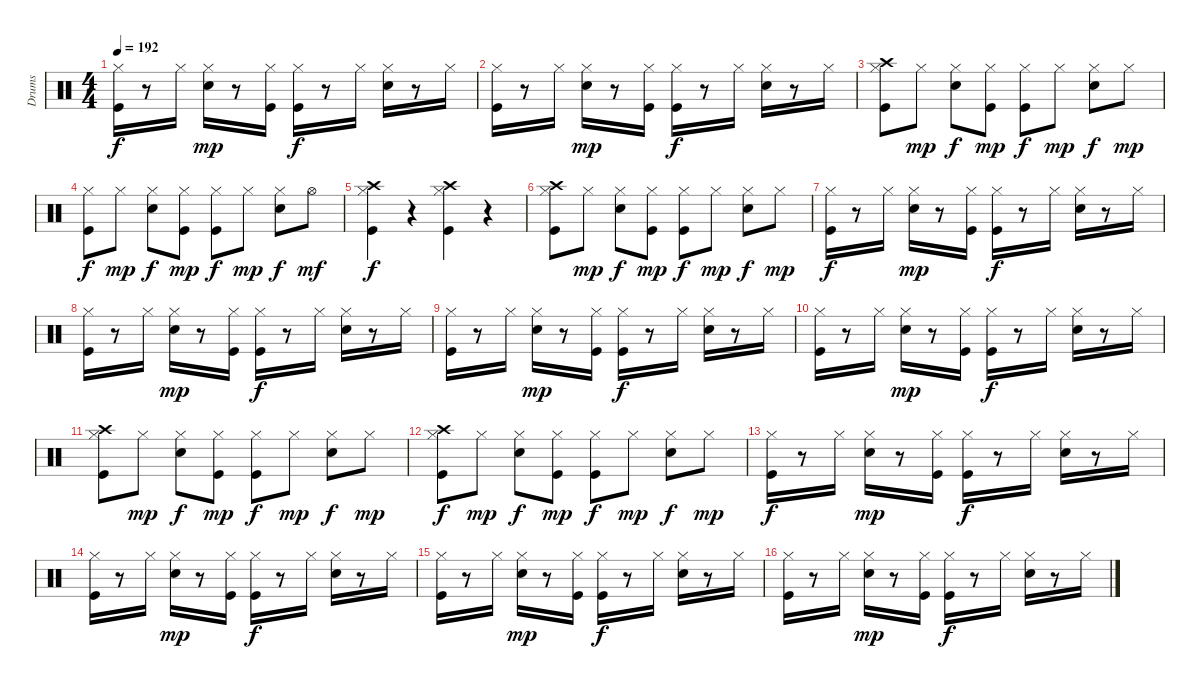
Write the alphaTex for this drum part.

\track ("Drums" "Drums") {instrument percussion}
\staff {score}
\articulation defaults
\ts (4 4)
\tempo 192
\clef neutral
\ks c
("Kick (hit)" "Hi-Hat (closed)").16{dy f} r.8 "Hi-Hat (closed)".16 ("Snare (hit) 2" "Hi-Hat (closed)").16{dy mp} r.8 ("Kick (hit)" "Hi-Hat (closed)").16 ("Kick (hit)" "Hi-Hat (closed)").16{dy f} r.8 "Hi-Hat (closed)".16 ("Snare (hit) 2" "Hi-Hat (closed)").16 r.8 "Hi-Hat (closed)".16 |
("Kick (hit)" "Hi-Hat (closed)").16 r.8 "Hi-Hat (closed)".16 ("Snare (hit) 2" "Hi-Hat (closed)").16{dy mp} r.8 ("Kick (hit)" "Hi-Hat (closed)").16 ("Kick (hit)" "Hi-Hat (closed)").16{dy f} r.8 "Hi-Hat (closed)".16 ("Snare (hit) 2" "Hi-Hat (closed)").16 r.8 "Hi-Hat (closed)".16 |
("Kick (hit)" "Hi-Hat (closed)" "Crash high (hit)").8 "Hi-Hat (closed)".8{dy mp} ("Snare (hit) 2" "Hi-Hat (closed)").8{dy f} ("Kick (hit)" "Hi-Hat (closed)").8{dy mp} ("Kick (hit)" "Hi-Hat (closed)").8{dy f} "Hi-Hat (closed)".8{dy mp} ("Snare (hit) 2" "Hi-Hat (closed)").8{dy f} "Hi-Hat (closed)".8{dy mp} |
("Kick (hit)" "Hi-Hat (closed)").8{dy f} "Hi-Hat (closed)".8{dy mp} ("Snare (hit) 2" "Hi-Hat (closed)").8{dy f} ("Kick (hit)" "Hi-Hat (closed)").8{dy mp} ("Kick (hit)" "Hi-Hat (closed)").8{dy f} "Hi-Hat (closed)".8{dy mp} ("Snare (hit) 2" "Hi-Hat (closed)").8{dy f} "Hi-Hat (open)".8{dy mf} |
("Kick (hit)" "Hi-Hat (closed)" "Crash high (hit)").4{dy f} r.4 ("Kick (hit)" "Hi-Hat (closed)" "Crash high (hit)").4 r.4 |
("Kick (hit)" "Hi-Hat (closed)" "Crash high (hit)").8 "Hi-Hat (closed)".8{dy mp} ("Snare (hit) 2" "Hi-Hat (closed)").8{dy f} ("Kick (hit)" "Hi-Hat (closed)").8{dy mp} ("Kick (hit)" "Hi-Hat (closed)").8{dy f} "Hi-Hat (closed)".8{dy mp} ("Snare (hit) 2" "Hi-Hat (closed)").8{dy f} "Hi-Hat (closed)".8{dy mp} |
("Kick (hit)" "Hi-Hat (closed)").16{dy f} r.8 "Hi-Hat (closed)".16 ("Snare (hit) 2" "Hi-Hat (closed)").16{dy mp} r.8 ("Kick (hit)" "Hi-Hat (closed)").16 ("Kick (hit)" "Hi-Hat (closed)").16{dy f} r.8 "Hi-Hat (closed)".16 ("Snare (hit) 2" "Hi-Hat (closed)").16 r.8 "Hi-Hat (closed)".16 |
("Kick (hit)" "Hi-Hat (closed)").16 r.8 "Hi-Hat (closed)".16 ("Snare (hit) 2" "Hi-Hat (closed)").16{dy mp} r.8 ("Kick (hit)" "Hi-Hat (closed)").16 ("Kick (hit)" "Hi-Hat (closed)").16{dy f} r.8 "Hi-Hat (closed)".16 ("Snare (hit) 2" "Hi-Hat (closed)").16 r.8 "Hi-Hat (closed)".16 |
("Kick (hit)" "Hi-Hat (closed)").16 r.8 "Hi-Hat (closed)".16 ("Snare (hit) 2" "Hi-Hat (closed)").16{dy mp} r.8 ("Kick (hit)" "Hi-Hat (closed)").16 ("Kick (hit)" "Hi-Hat (closed)").16{dy f} r.8 "Hi-Hat (closed)".16 ("Snare (hit) 2" "Hi-Hat (closed)").16 r.8 "Hi-Hat (closed)".16 |
("Kick (hit)" "Hi-Hat (closed)").16 r.8 "Hi-Hat (closed)".16 ("Snare (hit) 2" "Hi-Hat (closed)").16{dy mp} r.8 ("Kick (hit)" "Hi-Hat (closed)").16 ("Kick (hit)" "Hi-Hat (closed)").16{dy f} r.8 "Hi-Hat (closed)".16 ("Snare (hit) 2" "Hi-Hat (closed)").16 r.8 "Hi-Hat (closed)".16 |
("Kick (hit)" "Hi-Hat (closed)" "Crash high (hit)").8 "Hi-Hat (closed)".8{dy mp} ("Snare (hit) 2" "Hi-Hat (closed)").8{dy f} ("Kick (hit)" "Hi-Hat (closed)").8{dy mp} ("Kick (hit)" "Hi-Hat (closed)").8{dy f} "Hi-Hat (closed)".8{dy mp} ("Snare (hit) 2" "Hi-Hat (closed)").8{dy f} "Hi-Hat (closed)".8{dy mp} |
("Kick (hit)" "Hi-Hat (closed)" "Crash high (hit)").8{dy f} "Hi-Hat (closed)".8{dy mp} ("Snare (hit) 2" "Hi-Hat (closed)").8{dy f} ("Kick (hit)" "Hi-Hat (closed)").8{dy mp} ("Kick (hit)" "Hi-Hat (closed)").8{dy f} "Hi-Hat (closed)".8{dy mp} ("Snare (hit) 2" "Hi-Hat (closed)").8{dy f} "Hi-Hat (closed)".8{dy mp} |
("Kick (hit)" "Hi-Hat (closed)").16{dy f} r.8 "Hi-Hat (closed)".16 ("Snare (hit) 2" "Hi-Hat (closed)").16{dy mp} r.8 ("Kick (hit)" "Hi-Hat (closed)").16 ("Kick (hit)" "Hi-Hat (closed)").16{dy f} r.8 "Hi-Hat (closed)".16 ("Snare (hit) 2" "Hi-Hat (closed)").16 r.8 "Hi-Hat (closed)".16 |
("Kick (hit)" "Hi-Hat (closed)").16 r.8 "Hi-Hat (closed)".16 ("Snare (hit) 2" "Hi-Hat (closed)").16{dy mp} r.8 ("Kick (hit)" "Hi-Hat (closed)").16 ("Kick (hit)" "Hi-Hat (closed)").16{dy f} r.8 "Hi-Hat (closed)".16 ("Snare (hit) 2" "Hi-Hat (closed)").16 r.8 "Hi-Hat (closed)".16 |
("Kick (hit)" "Hi-Hat (closed)").16 r.8 "Hi-Hat (closed)".16 ("Snare (hit) 2" "Hi-Hat (closed)").16{dy mp} r.8 ("Kick (hit)" "Hi-Hat (closed)").16 ("Kick (hit)" "Hi-Hat (closed)").16{dy f} r.8 "Hi-Hat (closed)".16 ("Snare (hit) 2" "Hi-Hat (closed)").16 r.8 "Hi-Hat (closed)".16 |
("Kick (hit)" "Hi-Hat (closed)").16 r.8 "Hi-Hat (closed)".16 ("Snare (hit) 2" "Hi-Hat (closed)").16{dy mp} r.8 ("Kick (hit)" "Hi-Hat (closed)").16 ("Kick (hit)" "Hi-Hat (closed)").16{dy f} r.8 "Hi-Hat (closed)".16 ("Snare (hit) 2" "Hi-Hat (closed)").16 r.8 "Hi-Hat (closed)".16
